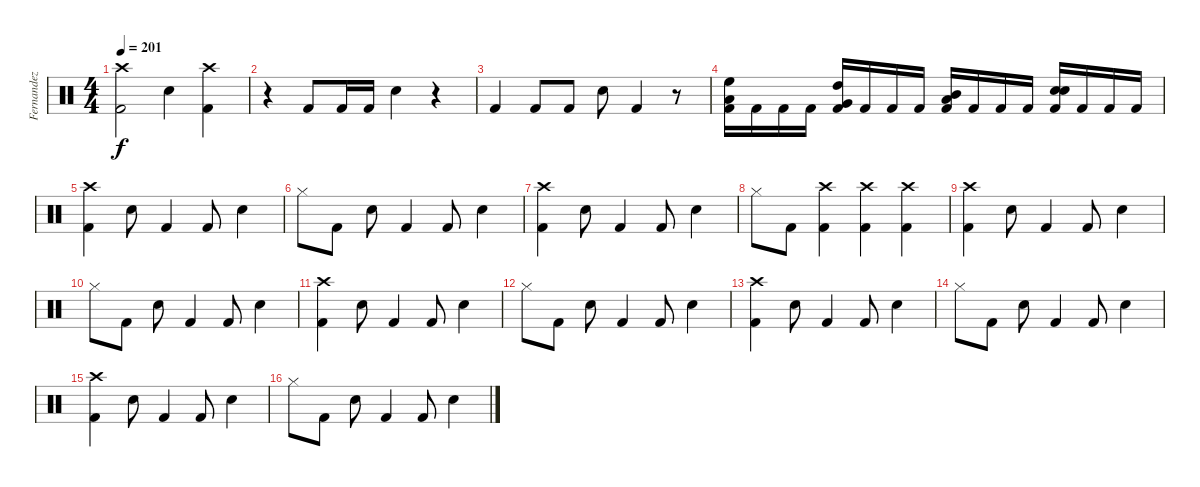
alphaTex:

\track ("Fernandez" "Fernandez") {instrument percussion}
\staff {score}
\articulation defaults
\ts (4 4)
\tempo 201
\clef neutral
\ks c
("Crash high (hit)" "Kick (hit) 2").2{dy f} "Snare (hit) 2".4 ("Crash high (hit)" "Kick (hit) 2").4 |
r.4 "Kick (hit) 2".8 "Kick (hit) 2".16 "Kick (hit) 2".16 "Snare (hit) 2".4 r.4 |
"Kick (hit) 2".4 "Kick (hit) 2".8 "Kick (hit) 2".8 "Snare (hit) 2".8 "Kick (hit) 2".4 r.8 |
("Kick (hit) 2" "Low Tom (hit)" "High Floor Tom (hit)").16 "Kick (hit) 2".16 "Kick (hit) 2".16 "Kick (hit) 2".16 ("Kick (hit) 2" "High Tom (hit)" "Very Low Tom (hit)").16 "Kick (hit) 2".16 "Kick (hit) 2".16 "Kick (hit) 2".16 ("Kick (hit) 2" "Low Floor Tom (hit)" "Mid Tom (hit)").16 "Kick (hit) 2".16 "Kick (hit) 2".16 "Kick (hit) 2".16 ("Kick (hit) 2" "Snare (hit) 2" "Snare (hit) 2").16 "Kick (hit) 2".16 "Kick (hit) 2".16 "Kick (hit) 2".16 |
("Crash high (hit)" "Kick (hit) 2").4 "Snare (hit) 2".8 "Kick (hit) 2".4 "Kick (hit) 2".8 "Snare (hit) 2".4 |
"Hi-Hat (closed)".8 "Kick (hit) 2".8 "Snare (hit) 2".8 "Kick (hit) 2".4 "Kick (hit) 2".8 "Snare (hit) 2".4 |
("Crash high (hit)" "Kick (hit) 2").4 "Snare (hit) 2".8 "Kick (hit) 2".4 "Kick (hit) 2".8 "Snare (hit) 2".4 |
"Hi-Hat (closed)".8 "Kick (hit) 2".8 ("Crash high (hit)" "Kick (hit) 2").4 ("Crash high (hit)" "Kick (hit) 2").4 ("Crash high (hit)" "Kick (hit) 2").4 |
("Crash high (hit)" "Kick (hit) 2").4 "Snare (hit) 2".8 "Kick (hit) 2".4 "Kick (hit) 2".8 "Snare (hit) 2".4 |
"Hi-Hat (closed)".8 "Kick (hit) 2".8 "Snare (hit) 2".8 "Kick (hit) 2".4 "Kick (hit) 2".8 "Snare (hit) 2".4 |
("Crash high (hit)" "Kick (hit) 2").4 "Snare (hit) 2".8 "Kick (hit) 2".4 "Kick (hit) 2".8 "Snare (hit) 2".4 |
"Hi-Hat (closed)".8 "Kick (hit) 2".8 "Snare (hit) 2".8 "Kick (hit) 2".4 "Kick (hit) 2".8 "Snare (hit) 2".4 |
("Crash high (hit)" "Kick (hit) 2").4 "Snare (hit) 2".8 "Kick (hit) 2".4 "Kick (hit) 2".8 "Snare (hit) 2".4 |
"Hi-Hat (closed)".8 "Kick (hit) 2".8 "Snare (hit) 2".8 "Kick (hit) 2".4 "Kick (hit) 2".8 "Snare (hit) 2".4 |
("Crash high (hit)" "Kick (hit) 2").4 "Snare (hit) 2".8 "Kick (hit) 2".4 "Kick (hit) 2".8 "Snare (hit) 2".4 |
"Hi-Hat (closed)".8 "Kick (hit) 2".8 "Snare (hit) 2".8 "Kick (hit) 2".4 "Kick (hit) 2".8 "Snare (hit) 2".4
